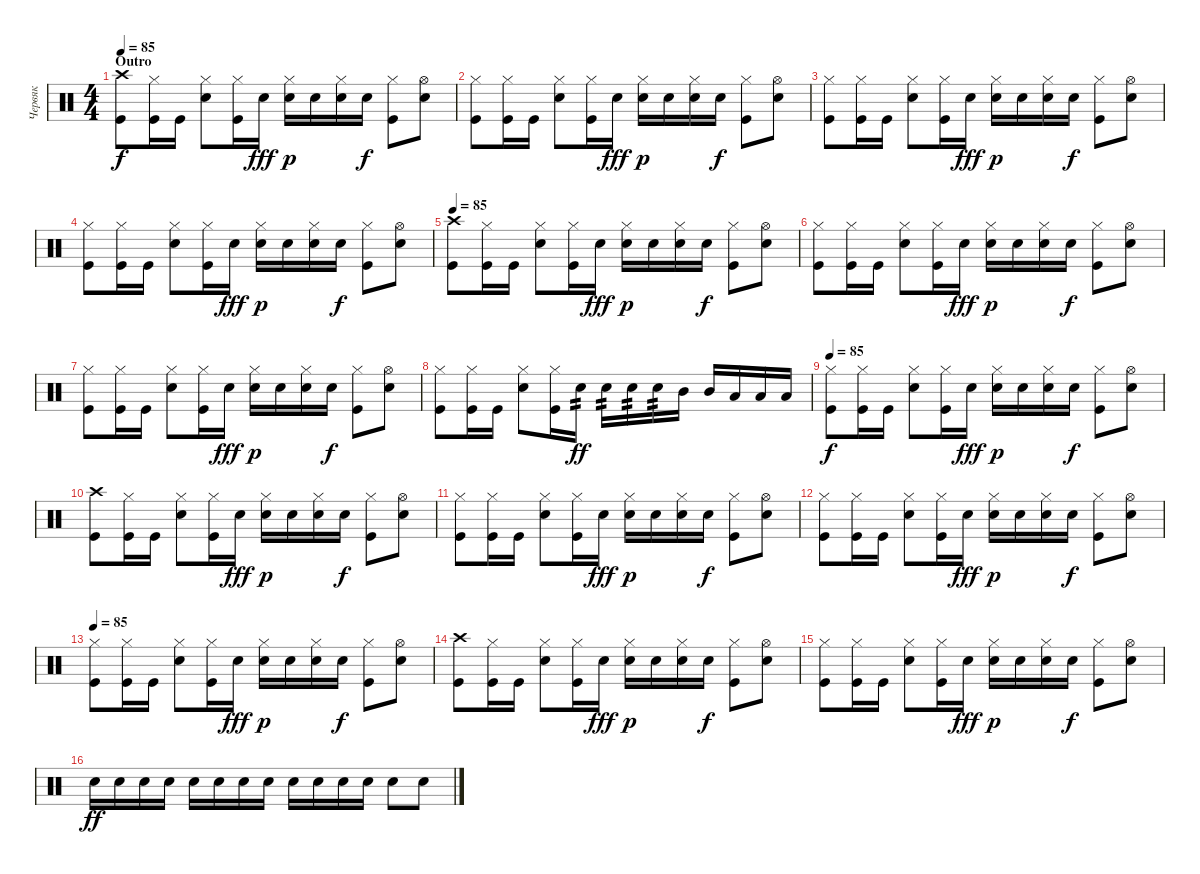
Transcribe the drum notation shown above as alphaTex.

\track ("Червяк" "Червяк") {instrument percussion}
\staff {score}
\articulation defaults
\ts (4 4)
\section ("" "Outro")
\tempo 100
\tempo 85
\clef neutral
\ks c
("Crash high (hit)" "Kick (hit)").8{dy f} ("Hi-Hat (closed)" "Kick (hit)").16 "Kick (hit)".16 ("Hi-Hat (closed)" "Electric Snare (hit)").8 ("Hi-Hat (closed)" "Kick (hit)").16 "Snare (hit) 2".16{dy fff} ("Hi-Hat (closed)" "Snare (hit) 2").16{dy p} "Snare (hit) 2".16 ("Hi-Hat (closed)" "Snare (hit) 2").16 "Snare (hit) 2".16{dy f} ("Hi-Hat (closed)" "Kick (hit)").8 ("Hi-Hat (open)" "Electric Snare (hit)").8 |
("Hi-Hat (closed)" "Kick (hit)").8 ("Hi-Hat (closed)" "Kick (hit)").16 "Kick (hit)".16 ("Hi-Hat (closed)" "Electric Snare (hit)").8 ("Hi-Hat (closed)" "Kick (hit)").16 "Snare (hit) 2".16{dy fff} ("Hi-Hat (closed)" "Snare (hit) 2").16{dy p} "Snare (hit) 2".16 ("Hi-Hat (closed)" "Snare (hit) 2").16 "Snare (hit) 2".16{dy f} ("Hi-Hat (closed)" "Kick (hit)").8 ("Hi-Hat (open)" "Electric Snare (hit)").8 |
("Hi-Hat (closed)" "Kick (hit)").8 ("Hi-Hat (closed)" "Kick (hit)").16 "Kick (hit)".16 ("Hi-Hat (closed)" "Electric Snare (hit)").8 ("Hi-Hat (closed)" "Kick (hit)").16 "Snare (hit) 2".16{dy fff} ("Hi-Hat (closed)" "Snare (hit) 2").16{dy p} "Snare (hit) 2".16 ("Hi-Hat (closed)" "Snare (hit) 2").16 "Snare (hit) 2".16{dy f} ("Hi-Hat (closed)" "Kick (hit)").8 ("Hi-Hat (open)" "Electric Snare (hit)").8 |
("Hi-Hat (closed)" "Kick (hit)").8 ("Hi-Hat (closed)" "Kick (hit)").16 "Kick (hit)".16 ("Hi-Hat (closed)" "Electric Snare (hit)").8 ("Hi-Hat (closed)" "Kick (hit)").16 "Snare (hit) 2".16{dy fff} ("Hi-Hat (closed)" "Snare (hit) 2").16{dy p} "Snare (hit) 2".16 ("Hi-Hat (closed)" "Snare (hit) 2").16 "Snare (hit) 2".16{dy f} ("Hi-Hat (closed)" "Kick (hit)").8 ("Hi-Hat (open)" "Electric Snare (hit)").8 |
\tempo 85
("Crash high (hit)" "Kick (hit)").8 ("Hi-Hat (closed)" "Kick (hit)").16 "Kick (hit)".16 ("Hi-Hat (closed)" "Electric Snare (hit)").8 ("Hi-Hat (closed)" "Kick (hit)").16 "Snare (hit) 2".16{dy fff} ("Hi-Hat (closed)" "Snare (hit) 2").16{dy p} "Snare (hit) 2".16 ("Hi-Hat (closed)" "Snare (hit) 2").16 "Snare (hit) 2".16{dy f} ("Hi-Hat (closed)" "Kick (hit)").8 ("Hi-Hat (open)" "Electric Snare (hit)").8 |
("Hi-Hat (closed)" "Kick (hit)").8 ("Hi-Hat (closed)" "Kick (hit)").16 "Kick (hit)".16 ("Hi-Hat (closed)" "Electric Snare (hit)").8 ("Hi-Hat (closed)" "Kick (hit)").16 "Snare (hit) 2".16{dy fff} ("Hi-Hat (closed)" "Snare (hit) 2").16{dy p} "Snare (hit) 2".16 ("Hi-Hat (closed)" "Snare (hit) 2").16 "Snare (hit) 2".16{dy f} ("Hi-Hat (closed)" "Kick (hit)").8 ("Hi-Hat (open)" "Electric Snare (hit)").8 |
("Hi-Hat (closed)" "Kick (hit)").8 ("Hi-Hat (closed)" "Kick (hit)").16 "Kick (hit)".16 ("Hi-Hat (closed)" "Electric Snare (hit)").8 ("Hi-Hat (closed)" "Kick (hit)").16 "Snare (hit) 2".16{dy fff} ("Hi-Hat (closed)" "Snare (hit) 2").16{dy p} "Snare (hit) 2".16 ("Hi-Hat (closed)" "Snare (hit) 2").16 "Snare (hit) 2".16{dy f} ("Hi-Hat (closed)" "Kick (hit)").8 ("Hi-Hat (open)" "Electric Snare (hit)").8 |
("Hi-Hat (closed)" "Kick (hit)").8 ("Hi-Hat (closed)" "Kick (hit)").16 "Kick (hit)".16 ("Hi-Hat (closed)" "Electric Snare (hit)").8 ("Hi-Hat (closed)" "Kick (hit)").16 "Electric Snare (hit)".16{tp 2 dy ff} "Electric Snare (hit)".16{tp 2} "Electric Snare (hit)".16{tp 2} "Electric Snare (hit)".16{tp 2} "Mid Tom (hit)".16 "Mid Tom (hit)".16 "Low Floor Tom (hit)".16 "Low Floor Tom (hit)".16 "Low Floor Tom (hit)".16 |
\tempo 85
("Hi-Hat (closed)" "Kick (hit)").8{dy f} ("Hi-Hat (closed)" "Kick (hit)").16 "Kick (hit)".16 ("Hi-Hat (closed)" "Electric Snare (hit)").8 ("Hi-Hat (closed)" "Kick (hit)").16 "Snare (hit) 2".16{dy fff} ("Hi-Hat (closed)" "Snare (hit) 2").16{dy p} "Snare (hit) 2".16 ("Hi-Hat (closed)" "Snare (hit) 2").16 "Snare (hit) 2".16{dy f} ("Hi-Hat (closed)" "Kick (hit)").8 ("Hi-Hat (open)" "Electric Snare (hit)").8 |
("Crash high (hit)" "Kick (hit)").8 ("Hi-Hat (closed)" "Kick (hit)").16 "Kick (hit)".16 ("Hi-Hat (closed)" "Electric Snare (hit)").8 ("Hi-Hat (closed)" "Kick (hit)").16 "Snare (hit) 2".16{dy fff} ("Hi-Hat (closed)" "Snare (hit) 2").16{dy p} "Snare (hit) 2".16 ("Hi-Hat (closed)" "Snare (hit) 2").16 "Snare (hit) 2".16{dy f} ("Hi-Hat (closed)" "Kick (hit)").8 ("Hi-Hat (open)" "Electric Snare (hit)").8 |
("Hi-Hat (closed)" "Kick (hit)").8 ("Hi-Hat (closed)" "Kick (hit)").16 "Kick (hit)".16 ("Hi-Hat (closed)" "Electric Snare (hit)").8 ("Hi-Hat (closed)" "Kick (hit)").16 "Snare (hit) 2".16{dy fff} ("Hi-Hat (closed)" "Snare (hit) 2").16{dy p} "Snare (hit) 2".16 ("Hi-Hat (closed)" "Snare (hit) 2").16 "Snare (hit) 2".16{dy f} ("Hi-Hat (closed)" "Kick (hit)").8 ("Hi-Hat (open)" "Electric Snare (hit)").8 |
("Hi-Hat (closed)" "Kick (hit)").8 ("Hi-Hat (closed)" "Kick (hit)").16 "Kick (hit)".16 ("Hi-Hat (closed)" "Electric Snare (hit)").8 ("Hi-Hat (closed)" "Kick (hit)").16 "Snare (hit) 2".16{dy fff} ("Hi-Hat (closed)" "Snare (hit) 2").16{dy p} "Snare (hit) 2".16 ("Hi-Hat (closed)" "Snare (hit) 2").16 "Snare (hit) 2".16{dy f} ("Hi-Hat (closed)" "Kick (hit)").8 ("Hi-Hat (open)" "Electric Snare (hit)").8 |
\tempo 85
("Hi-Hat (closed)" "Kick (hit)").8 ("Hi-Hat (closed)" "Kick (hit)").16 "Kick (hit)".16 ("Hi-Hat (closed)" "Electric Snare (hit)").8 ("Hi-Hat (closed)" "Kick (hit)").16 "Snare (hit) 2".16{dy fff} ("Hi-Hat (closed)" "Snare (hit) 2").16{dy p} "Snare (hit) 2".16 ("Hi-Hat (closed)" "Snare (hit) 2").16 "Snare (hit) 2".16{dy f} ("Hi-Hat (closed)" "Kick (hit)").8 ("Hi-Hat (open)" "Electric Snare (hit)").8 |
("Crash high (hit)" "Kick (hit)").8 ("Hi-Hat (closed)" "Kick (hit)").16 "Kick (hit)".16 ("Hi-Hat (closed)" "Electric Snare (hit)").8 ("Hi-Hat (closed)" "Kick (hit)").16 "Snare (hit) 2".16{dy fff} ("Hi-Hat (closed)" "Snare (hit) 2").16{dy p} "Snare (hit) 2".16 ("Hi-Hat (closed)" "Snare (hit) 2").16 "Snare (hit) 2".16{dy f} ("Hi-Hat (closed)" "Kick (hit)").8 ("Hi-Hat (open)" "Electric Snare (hit)").8 |
("Hi-Hat (closed)" "Kick (hit)").8 ("Hi-Hat (closed)" "Kick (hit)").16 "Kick (hit)".16 ("Hi-Hat (closed)" "Electric Snare (hit)").8 ("Hi-Hat (closed)" "Kick (hit)").16 "Snare (hit) 2".16{dy fff} ("Hi-Hat (closed)" "Snare (hit) 2").16{dy p} "Snare (hit) 2".16 ("Hi-Hat (closed)" "Snare (hit) 2").16 "Snare (hit) 2".16{dy f} ("Hi-Hat (closed)" "Kick (hit)").8 ("Hi-Hat (open)" "Electric Snare (hit)").8 |
"Electric Snare (hit)".16{dy ff} "Electric Snare (hit)".16 "Electric Snare (hit)".16 "Electric Snare (hit)".16 "Electric Snare (hit)".16 "Electric Snare (hit)".16 "Electric Snare (hit)".16 "Electric Snare (hit)".16 "Electric Snare (hit)".16 "Electric Snare (hit)".16 "Electric Snare (hit)".16 "Electric Snare (hit)".16 "Electric Snare (hit)".8 "Electric Snare (hit)".8
